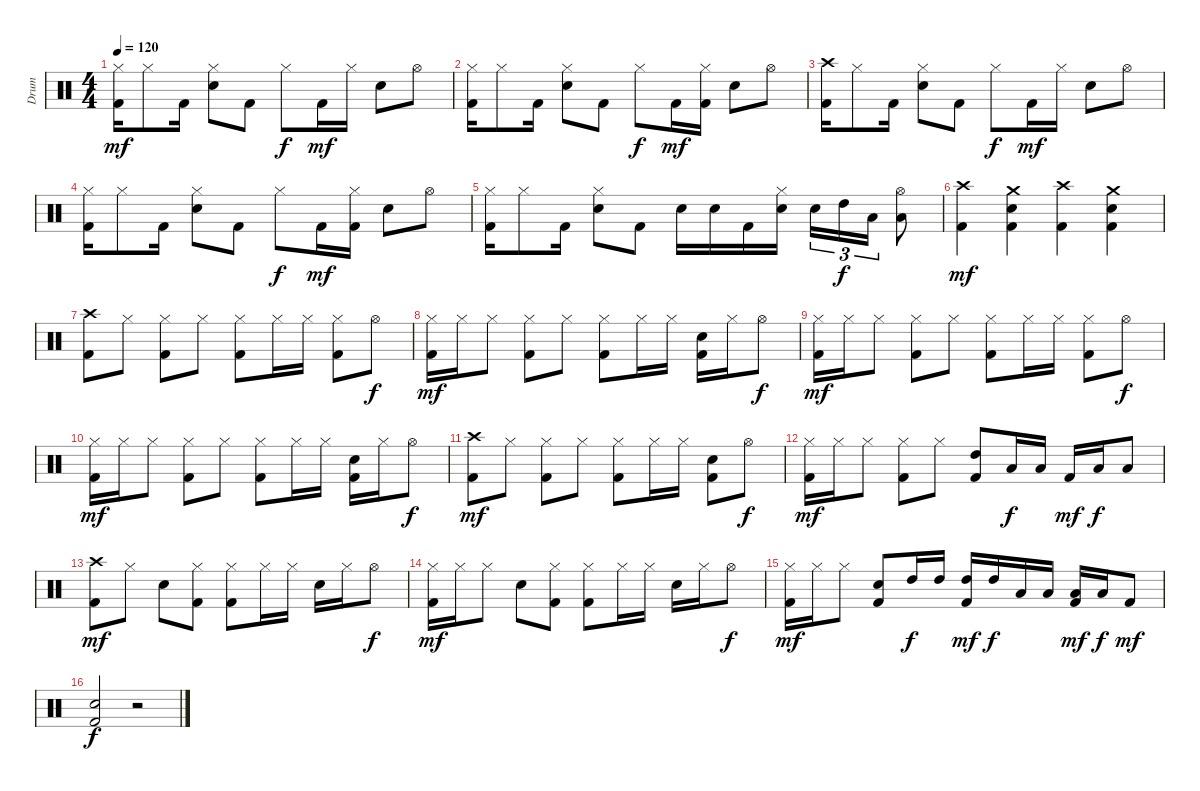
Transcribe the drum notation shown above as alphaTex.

\track ("Drum" "Drum") {instrument percussion}
\staff {score}
\articulation defaults
\ts (4 4)
\tempo 120
\clef neutral
\ks c
("Hi-Hat (closed)" "Kick (hit) 2").16{dy mf} "Hi-Hat (closed)".8 "Kick (hit) 2".16 ("Hi-Hat (closed)" "Snare (hit) 2").8 "Kick (hit) 2".8 "Hi-Hat (closed)".8{dy f} "Kick (hit) 2".16{dy mf} "Hi-Hat (closed)".16 "Snare (hit) 2".8 "Hi-Hat (open)".8 |
("Hi-Hat (closed)" "Kick (hit) 2").16 "Hi-Hat (closed)".8 "Kick (hit) 2".16 ("Hi-Hat (closed)" "Snare (hit) 2").8 "Kick (hit) 2".8 "Hi-Hat (closed)".8{dy f} "Kick (hit) 2".16{dy mf} ("Hi-Hat (closed)" "Kick (hit) 2").16 "Snare (hit) 2".8 "Hi-Hat (open)".8 |
("Crash high (hit)" "Kick (hit) 2").16 "Hi-Hat (closed)".8 "Kick (hit) 2".16 ("Hi-Hat (closed)" "Snare (hit) 2").8 "Kick (hit) 2".8 "Hi-Hat (closed)".8{dy f} "Kick (hit) 2".16{dy mf} "Hi-Hat (closed)".16 "Snare (hit) 2".8 "Hi-Hat (open)".8 |
("Hi-Hat (closed)" "Kick (hit) 2").16 "Hi-Hat (closed)".8 "Kick (hit) 2".16 ("Hi-Hat (closed)" "Snare (hit) 2").8 "Kick (hit) 2".8 "Hi-Hat (closed)".8{dy f} "Kick (hit) 2".16{dy mf} ("Hi-Hat (closed)" "Kick (hit) 2").16 "Snare (hit) 2".8 "Hi-Hat (open)".8 |
("Hi-Hat (closed)" "Kick (hit) 2").16 "Hi-Hat (closed)".8 "Kick (hit) 2".16 ("Hi-Hat (closed)" "Snare (hit) 2").8 "Kick (hit) 2".8 "Snare (hit) 2".16 "Snare (hit) 2".16 "Kick (hit) 2".16 ("Hi-Hat (closed)" "Snare (hit) 2").16 "Snare (hit) 2".16{tu (3 2)} "High Tom (hit)".16{tu (3 2) dy f} "Low Tom (hit)".16{tu (3 2)} ("Hi-Hat (open)" "Low Floor Tom (hit)").8 |
("Crash high (hit)" "Kick (hit) 2").4{dy mf} ("Crash medium (hit)" "Snare (hit) 2" "Kick (hit) 2").4 ("Crash high (hit)" "Kick (hit) 2").4 ("Crash medium (hit)" "Snare (hit) 2" "Kick (hit) 2").4 |
("Crash high (hit)" "Kick (hit) 2").8 "Hi-Hat (closed)".8 ("Hi-Hat (closed)" "Kick (hit) 2").8 "Hi-Hat (closed)".8 ("Hi-Hat (closed)" "Kick (hit) 2").8 "Hi-Hat (closed)".16 "Hi-Hat (closed)".16 ("Hi-Hat (closed)" "Kick (hit) 2").8 "Hi-Hat (open)".8{dy f} |
("Hi-Hat (closed)" "Kick (hit) 2").16{dy mf} "Hi-Hat (closed)".16 "Hi-Hat (closed)".8 ("Hi-Hat (closed)" "Kick (hit) 2").8 "Hi-Hat (closed)".8 ("Hi-Hat (closed)" "Kick (hit) 2").8 "Hi-Hat (closed)".16 "Hi-Hat (closed)".16 ("Snare (hit) 2" "Kick (hit) 2").16 "Hi-Hat (closed)".16 "Hi-Hat (open)".8{dy f} |
("Hi-Hat (closed)" "Kick (hit) 2").16{dy mf} "Hi-Hat (closed)".16 "Hi-Hat (closed)".8 ("Hi-Hat (closed)" "Kick (hit) 2").8 "Hi-Hat (closed)".8 ("Hi-Hat (closed)" "Kick (hit) 2").8 "Hi-Hat (closed)".16 "Hi-Hat (closed)".16 ("Hi-Hat (closed)" "Kick (hit) 2").8 "Hi-Hat (open)".8{dy f} |
("Hi-Hat (closed)" "Kick (hit) 2").16{dy mf} "Hi-Hat (closed)".16 "Hi-Hat (closed)".8 ("Hi-Hat (closed)" "Kick (hit) 2").8 "Hi-Hat (closed)".8 ("Hi-Hat (closed)" "Kick (hit) 2").8 "Hi-Hat (closed)".16 "Hi-Hat (closed)".16 ("Snare (hit) 2" "Kick (hit) 2").16 "Hi-Hat (closed)".16 "Hi-Hat (open)".8{dy f} |
("Crash high (hit)" "Kick (hit) 2").8{dy mf} "Hi-Hat (closed)".8 ("Hi-Hat (closed)" "Kick (hit) 2").8 "Hi-Hat (closed)".8 ("Hi-Hat (closed)" "Kick (hit) 2").8 "Hi-Hat (closed)".16 "Hi-Hat (closed)".16 ("Snare (hit) 2" "Kick (hit) 2").8 "Hi-Hat (open)".8{dy f} |
("Hi-Hat (closed)" "Kick (hit) 2").16{dy mf} "Hi-Hat (closed)".16 "Hi-Hat (closed)".8 ("Hi-Hat (closed)" "Kick (hit) 2").8 "Hi-Hat (closed)".8 ("High Tom (hit)" "Kick (hit) 2").8 "Low Tom (hit)".16{dy f} "Low Tom (hit)".16 "Kick (hit) 2".16{dy mf} "Low Floor Tom (hit)".16{dy f} "Low Floor Tom (hit)".8 |
("Crash high (hit)" "Kick (hit) 2").8{dy mf} "Hi-Hat (closed)".8 "Snare (hit) 2".8 ("Hi-Hat (closed)" "Kick (hit) 2").8 ("Hi-Hat (closed)" "Kick (hit) 2").8 "Hi-Hat (closed)".16 "Hi-Hat (closed)".16 "Snare (hit) 2".16 "Hi-Hat (closed)".16 "Hi-Hat (open)".8{dy f} |
("Hi-Hat (closed)" "Kick (hit) 2").16{dy mf} "Hi-Hat (closed)".16 "Hi-Hat (closed)".8 "Snare (hit) 2".8 ("Hi-Hat (closed)" "Kick (hit) 2").8 ("Hi-Hat (closed)" "Kick (hit) 2").8 "Hi-Hat (closed)".16 "Hi-Hat (closed)".16 "Snare (hit) 2".16 "Hi-Hat (closed)".16 "Hi-Hat (open)".8{dy f} |
("Hi-Hat (closed)" "Kick (hit) 2").16{dy mf} "Hi-Hat (closed)".16 "Hi-Hat (closed)".8 ("Snare (hit) 2" "Kick (hit) 2").8 "High Tom (hit)".16{dy f} "High Tom (hit)".16 ("High Tom (hit)" "Kick (hit) 2").16{dy mf} "High Tom (hit)".16{dy f} "Low Tom (hit)".16 "Low Tom (hit)".16 ("Low Floor Tom (hit)" "Kick (hit) 2").16{dy mf} "Low Floor Tom (hit)".16{dy f} "Kick (hit) 2".8{dy mf} |
("Snare (hit) 2" "Kick (hit) 2").2{dy f} r.2
